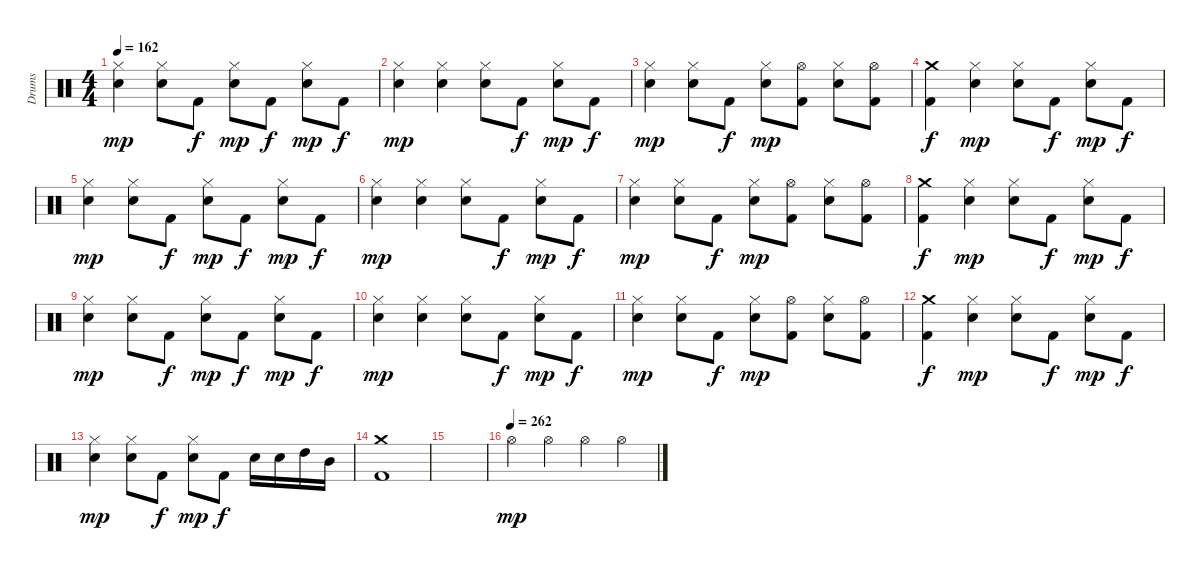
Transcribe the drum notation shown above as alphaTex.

\track ("Drums" "Drums") {instrument percussion}
\staff {score}
\articulation defaults
\ts (4 4)
\tempo 162
\clef neutral
\ks c
("Hi-Hat (closed)" "Snare (hit) 2").4{dy mp} ("Hi-Hat (closed)" "Snare (hit) 2").8 "Kick (hit) 2".8{dy f} ("Hi-Hat (closed)" "Snare (hit) 2").8{dy mp} "Kick (hit) 2".8{dy f} ("Hi-Hat (closed)" "Snare (hit) 2").8{dy mp} "Kick (hit) 2".8{dy f} |
("Hi-Hat (closed)" "Snare (hit) 2").4{dy mp} ("Hi-Hat (closed)" "Snare (hit) 2").4 ("Hi-Hat (closed)" "Snare (hit) 2").8 "Kick (hit) 2".8{dy f} ("Hi-Hat (closed)" "Snare (hit) 2").8{dy mp} "Kick (hit) 2".8{dy f} |
("Hi-Hat (closed)" "Snare (hit) 2").4{dy mp} ("Hi-Hat (closed)" "Snare (hit) 2").8 "Kick (hit) 2".8{dy f} ("Hi-Hat (closed)" "Snare (hit) 2").8{dy mp} ("Hi-Hat (open)" "Kick (hit) 2").8 ("Hi-Hat (closed)" "Snare (hit) 2").8 ("Hi-Hat (open)" "Kick (hit) 2").8 |
("Crash medium (hit)" "Kick (hit) 2").4{dy f} ("Hi-Hat (closed)" "Snare (hit) 2").4{dy mp} ("Hi-Hat (closed)" "Snare (hit) 2").8 "Kick (hit) 2".8{dy f} ("Hi-Hat (closed)" "Snare (hit) 2").8{dy mp} "Kick (hit) 2".8{dy f} |
("Hi-Hat (closed)" "Snare (hit) 2").4{dy mp} ("Hi-Hat (closed)" "Snare (hit) 2").8 "Kick (hit) 2".8{dy f} ("Hi-Hat (closed)" "Snare (hit) 2").8{dy mp} "Kick (hit) 2".8{dy f} ("Hi-Hat (closed)" "Snare (hit) 2").8{dy mp} "Kick (hit) 2".8{dy f} |
("Hi-Hat (closed)" "Snare (hit) 2").4{dy mp} ("Hi-Hat (closed)" "Snare (hit) 2").4 ("Hi-Hat (closed)" "Snare (hit) 2").8 "Kick (hit) 2".8{dy f} ("Hi-Hat (closed)" "Snare (hit) 2").8{dy mp} "Kick (hit) 2".8{dy f} |
("Hi-Hat (closed)" "Snare (hit) 2").4{dy mp} ("Hi-Hat (closed)" "Snare (hit) 2").8 "Kick (hit) 2".8{dy f} ("Hi-Hat (closed)" "Snare (hit) 2").8{dy mp} ("Hi-Hat (open)" "Kick (hit) 2").8 ("Hi-Hat (closed)" "Snare (hit) 2").8 ("Hi-Hat (open)" "Kick (hit) 2").8 |
("Crash medium (hit)" "Kick (hit) 2").4{dy f} ("Hi-Hat (closed)" "Snare (hit) 2").4{dy mp} ("Hi-Hat (closed)" "Snare (hit) 2").8 "Kick (hit) 2".8{dy f} ("Hi-Hat (closed)" "Snare (hit) 2").8{dy mp} "Kick (hit) 2".8{dy f} |
("Hi-Hat (closed)" "Snare (hit) 2").4{dy mp} ("Hi-Hat (closed)" "Snare (hit) 2").8 "Kick (hit) 2".8{dy f} ("Hi-Hat (closed)" "Snare (hit) 2").8{dy mp} "Kick (hit) 2".8{dy f} ("Hi-Hat (closed)" "Snare (hit) 2").8{dy mp} "Kick (hit) 2".8{dy f} |
("Hi-Hat (closed)" "Snare (hit) 2").4{dy mp} ("Hi-Hat (closed)" "Snare (hit) 2").4 ("Hi-Hat (closed)" "Snare (hit) 2").8 "Kick (hit) 2".8{dy f} ("Hi-Hat (closed)" "Snare (hit) 2").8{dy mp} "Kick (hit) 2".8{dy f} |
("Hi-Hat (closed)" "Snare (hit) 2").4{dy mp} ("Hi-Hat (closed)" "Snare (hit) 2").8 "Kick (hit) 2".8{dy f} ("Hi-Hat (closed)" "Snare (hit) 2").8{dy mp} ("Hi-Hat (open)" "Kick (hit) 2").8 ("Hi-Hat (closed)" "Snare (hit) 2").8 ("Hi-Hat (open)" "Kick (hit) 2").8 |
("Crash medium (hit)" "Kick (hit) 2").4{dy f} ("Hi-Hat (closed)" "Snare (hit) 2").4{dy mp} ("Hi-Hat (closed)" "Snare (hit) 2").8 "Kick (hit) 2".8{dy f} ("Hi-Hat (closed)" "Snare (hit) 2").8{dy mp} "Kick (hit) 2".8{dy f} |
("Hi-Hat (closed)" "Snare (hit) 2").4{dy mp} ("Hi-Hat (closed)" "Snare (hit) 2").8 "Kick (hit) 2".8{dy f} ("Hi-Hat (closed)" "Snare (hit) 2").8{dy mp} "Kick (hit) 2".8{dy f} "Snare (hit) 2".16 "Snare (hit) 2".16 "High Tom (hit)".16 "Mid Tom (hit)".16 |
("Crash medium (hit)" "Kick (hit) 2").1 |
|
\tempo (262)
"Hi-Hat (open)".4{dy mp} "Hi-Hat (open)".4 "Hi-Hat (open)".4 "Hi-Hat (open)".4
